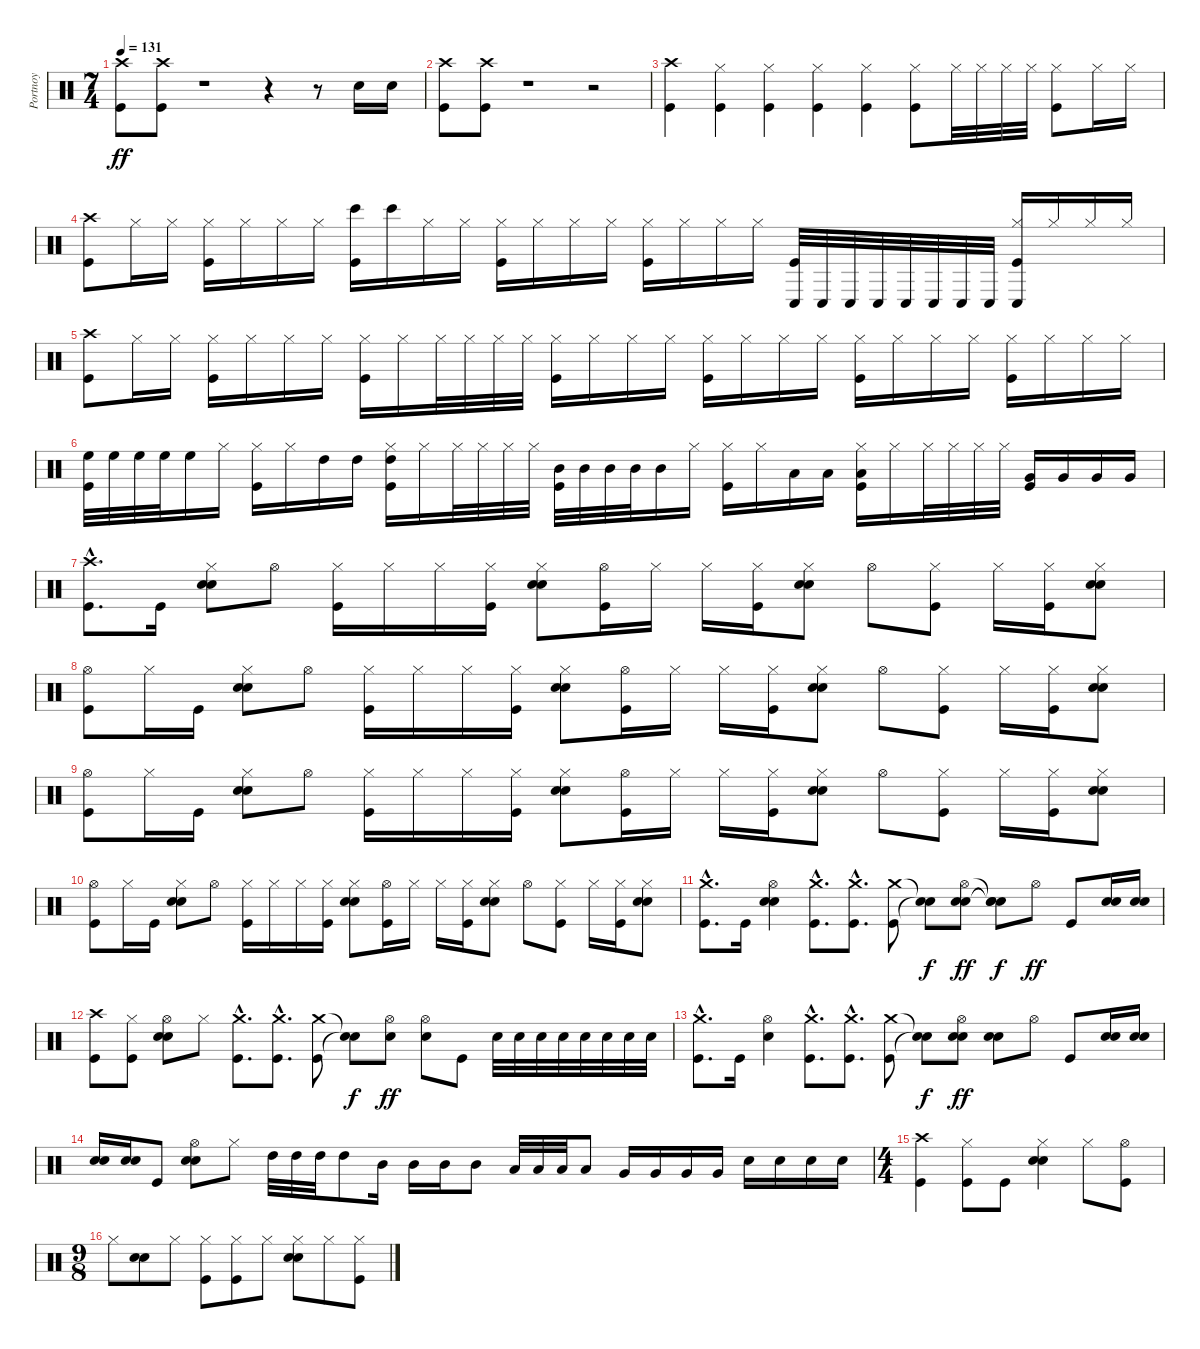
\track ("Portnoy" "Portnoy") {instrument percussion}
\staff {score}
\articulation defaults
\ts (7 4)
\tempo 131
\clef neutral
\ks c
("Crash high (hit)" "Kick (hit)").8{dy ff} ("Crash high (hit)" "Kick (hit)").8 r.1 r.4 r.8 "Snare (hit) 2".16 "Snare (hit) 2".16 |
("Crash high (hit)" "Kick (hit)").8 ("Crash high (hit)" "Kick (hit)").8 r.1 r.2 |
("Crash high (hit)" "Kick (hit)").4 ("Hi-Hat (closed)" "Kick (hit)").4 ("Hi-Hat (closed)" "Kick (hit)").4 ("Hi-Hat (closed)" "Kick (hit)").4 ("Hi-Hat (closed)" "Kick (hit)").4 ("Hi-Hat (closed)" "Kick (hit)").8 "Hi-Hat (closed)".32 "Hi-Hat (closed)".32 "Hi-Hat (closed)".32 "Hi-Hat (closed)".32 ("Hi-Hat (closed)" "Kick (hit)").8 "Hi-Hat (closed)".16 "Hi-Hat (closed)".16 |
("Crash high (hit)" "Kick (hit)").8 "Hi-Hat (closed)".16 "Hi-Hat (closed)".16 ("Hi-Hat (closed)" "Kick (hit)").16 "Hi-Hat (closed)".16 "Hi-Hat (closed)".16 "Hi-Hat (closed)".16 ("Bongo High (hit)" "Kick (hit)").16 "Bongo High (hit)".16 "Hi-Hat (closed)".16 "Hi-Hat (closed)".16 ("Hi-Hat (closed)" "Kick (hit)").16 "Hi-Hat (closed)".16 "Hi-Hat (closed)".16 "Hi-Hat (closed)".16 ("Hi-Hat (closed)" "Kick (hit)").16 "Hi-Hat (closed)".16 "Hi-Hat (closed)".16 "Hi-Hat (closed)".16 ("Conga low (hit)" "Kick (hit)").32 "Conga low (hit)".32 "Conga low (hit)".32 "Conga low (hit)".32 "Conga low (hit)".32 "Conga low (hit)".32 "Conga low (hit)".32 "Conga low (hit)".32 ("Hi-Hat (closed)" "Conga low (hit)" "Kick (hit)").16 "Hi-Hat (closed)".16 "Hi-Hat (closed)".16 "Hi-Hat (closed)".16 |
("Crash high (hit)" "Kick (hit)").8 "Hi-Hat (closed)".16 "Hi-Hat (closed)".16 ("Hi-Hat (closed)" "Kick (hit)").16 "Hi-Hat (closed)".16 "Hi-Hat (closed)".16 "Hi-Hat (closed)".16 ("Hi-Hat (closed)" "Kick (hit)").16 "Hi-Hat (closed)".16 "Hi-Hat (closed)".32 "Hi-Hat (closed)".32 "Hi-Hat (closed)".32 "Hi-Hat (closed)".32 ("Hi-Hat (closed)" "Kick (hit)").16 "Hi-Hat (closed)".16 "Hi-Hat (closed)".16 "Hi-Hat (closed)".16 ("Hi-Hat (closed)" "Kick (hit)").16 "Hi-Hat (closed)".16 "Hi-Hat (closed)".16 "Hi-Hat (closed)".16 ("Hi-Hat (closed)" "Kick (hit)").16 "Hi-Hat (closed)".16 "Hi-Hat (closed)".16 "Hi-Hat (closed)".16 ("Hi-Hat (closed)" "Kick (hit)").16 "Hi-Hat (closed)".16 "Hi-Hat (closed)".16 "Hi-Hat (closed)".16 |
("High Floor Tom (hit)" "Kick (hit)").32 "High Floor Tom (hit)".32 "High Floor Tom (hit)".32 "High Floor Tom (hit)".32 "High Floor Tom (hit)".16 "Hi-Hat (closed)".16 ("Hi-Hat (closed)" "Kick (hit)").16 "Hi-Hat (closed)".16 "High Tom (hit)".16 "High Tom (hit)".16 ("Hi-Hat (closed)" "High Tom (hit)" "Kick (hit)").16 "Hi-Hat (closed)".16 "Hi-Hat (closed)".32 "Hi-Hat (closed)".32 "Hi-Hat (closed)".32 "Hi-Hat (closed)".32 ("Mid Tom (hit)" "Kick (hit)").32 "Mid Tom (hit)".32 "Mid Tom (hit)".32 "Mid Tom (hit)".32 "Mid Tom (hit)".16 "Hi-Hat (closed)".16 ("Hi-Hat (closed)" "Kick (hit)").16 "Hi-Hat (closed)".16 "Low Tom (hit)".16 "Low Tom (hit)".16 ("Hi-Hat (closed)" "Low Tom (hit)" "Kick (hit)").16 "Hi-Hat (closed)".16 "Hi-Hat (closed)".32 "Hi-Hat (closed)".32 "Hi-Hat (closed)".32 "Hi-Hat (closed)".32 ("Very Low Tom (hit)" "Kick (hit)").16 "Very Low Tom (hit)".16 "Very Low Tom (hit)".16 "Very Low Tom (hit)".16 |
("Crash high (hit)"{hac} "Kick (hit)"{hac}).8{d} "Kick (hit)".16 ("Hi-Hat (closed)" "Snare (hit) 2" "Electric Snare (hit)").8 "Hi-Hat (open)".8 ("Hi-Hat (closed)" "Kick (hit)").16 "Hi-Hat (closed)".16 "Hi-Hat (closed)".16 ("Hi-Hat (closed)" "Kick (hit)").16 ("Hi-Hat (closed)" "Snare (hit) 2" "Electric Snare (hit)").8 ("Hi-Hat (open)" "Kick (hit)").16 "Hi-Hat (closed)".16 "Hi-Hat (closed)".16 ("Hi-Hat (closed)" "Kick (hit)").16 ("Hi-Hat (closed)" "Snare (hit) 2" "Electric Snare (hit)").8 "Hi-Hat (open)".8 ("Hi-Hat (closed)" "Kick (hit)").8 "Hi-Hat (closed)".16 ("Hi-Hat (closed)" "Kick (hit)").16 ("Hi-Hat (closed)" "Snare (hit) 2" "Electric Snare (hit)").8 |
("Hi-Hat (open)" "Kick (hit)").8 "Hi-Hat (closed)".16 "Kick (hit)".16 ("Hi-Hat (closed)" "Snare (hit) 2" "Electric Snare (hit)").8 "Hi-Hat (open)".8 ("Hi-Hat (closed)" "Kick (hit)").16 "Hi-Hat (closed)".16 "Hi-Hat (closed)".16 ("Hi-Hat (closed)" "Kick (hit)").16 ("Hi-Hat (closed)" "Snare (hit) 2" "Electric Snare (hit)").8 ("Hi-Hat (open)" "Kick (hit)").16 "Hi-Hat (closed)".16 "Hi-Hat (closed)".16 ("Hi-Hat (closed)" "Kick (hit)").16 ("Hi-Hat (closed)" "Snare (hit) 2" "Electric Snare (hit)").8 "Hi-Hat (open)".8 ("Hi-Hat (closed)" "Kick (hit)").8 "Hi-Hat (closed)".16 ("Hi-Hat (closed)" "Kick (hit)").16 ("Hi-Hat (closed)" "Snare (hit) 2" "Electric Snare (hit)").8 |
("Hi-Hat (open)" "Kick (hit)").8 "Hi-Hat (closed)".16 "Kick (hit)".16 ("Hi-Hat (closed)" "Snare (hit) 2" "Electric Snare (hit)").8 "Hi-Hat (open)".8 ("Hi-Hat (closed)" "Kick (hit)").16 "Hi-Hat (closed)".16 "Hi-Hat (closed)".16 ("Hi-Hat (closed)" "Kick (hit)").16 ("Hi-Hat (closed)" "Snare (hit) 2" "Electric Snare (hit)").8 ("Hi-Hat (open)" "Kick (hit)").16 "Hi-Hat (closed)".16 "Hi-Hat (closed)".16 ("Hi-Hat (closed)" "Kick (hit)").16 ("Hi-Hat (closed)" "Snare (hit) 2" "Electric Snare (hit)").8 "Hi-Hat (open)".8 ("Hi-Hat (closed)" "Kick (hit)").8 "Hi-Hat (closed)".16 ("Hi-Hat (closed)" "Kick (hit)").16 ("Hi-Hat (closed)" "Snare (hit) 2" "Electric Snare (hit)").8 |
("Hi-Hat (open)" "Kick (hit)").8 "Hi-Hat (closed)".16 "Kick (hit)".16 ("Hi-Hat (closed)" "Snare (hit) 2" "Electric Snare (hit)").8 "Hi-Hat (open)".8 ("Hi-Hat (closed)" "Kick (hit)").16 "Hi-Hat (closed)".16 "Hi-Hat (closed)".16 ("Hi-Hat (closed)" "Kick (hit)").16 ("Hi-Hat (closed)" "Snare (hit) 2" "Electric Snare (hit)").8 ("Hi-Hat (open)" "Kick (hit)").16 "Hi-Hat (closed)".16 "Hi-Hat (closed)".16 ("Hi-Hat (closed)" "Kick (hit)").16 ("Hi-Hat (closed)" "Snare (hit) 2" "Electric Snare (hit)").8 "Hi-Hat (open)".8 ("Hi-Hat (closed)" "Kick (hit)").8 "Hi-Hat (closed)".16 ("Hi-Hat (closed)" "Kick (hit)").16 ("Hi-Hat (closed)" "Snare (hit) 2" "Electric Snare (hit)").8 |
("Crash medium (hit)"{hac} "Kick (hit)"{hac}).8{d} "Kick (hit)".16 ("Hi-Hat (open)" "Snare (hit) 2" "Electric Snare (hit)").4 ("Crash medium (hit)"{hac} "Kick (hit)"{hac}).8{d} ("Crash medium (hit)"{hac} "Kick (hit)"{hac}).8{d} ("Crash medium (hit)" "Kick (hit)").8 ("Snare (hit)"{t} "Snare (hit)"{t}).8{dy f} ("Hi-Hat (open)" "Snare (hit) 2" "Electric Snare (hit)").8{dy ff} ("Snare (hit)"{t} "Snare (hit)"{t} "Snare (hit)"{t}).8{dy f} "Hi-Hat (open)".8{dy ff} "Kick (hit)".8 ("Snare (hit) 2" "Electric Snare (hit)").16 ("Snare (hit) 2" "Electric Snare (hit)").16 |
("Crash high (hit)" "Kick (hit)").8 ("Hi-Hat (closed)" "Kick (hit)").8 ("Hi-Hat (open)" "Snare (hit) 2" "Electric Snare (hit)").8 "Hi-Hat (closed)".8 ("Crash medium (hit)"{hac} "Kick (hit)"{hac}).8{d} ("Crash medium (hit)"{hac} "Kick (hit)"{hac}).8{d} ("Crash medium (hit)" "Kick (hit)").8 ("Snare (hit)"{t} "Snare (hit)"{t}).8{dy f} ("Hi-Hat (open)" "Snare (hit) 2").8{dy ff} ("Hi-Hat (open)" "Snare (hit) 2").8 "Kick (hit)".8 "Snare (hit) 2".32 "Snare (hit) 2".32 "Snare (hit) 2".32 "Snare (hit) 2".32 "Snare (hit) 2".32 "Snare (hit) 2".32 "Snare (hit) 2".32 "Snare (hit) 2".32 |
("Crash medium (hit)"{hac} "Kick (hit)"{hac}).8{d} "Kick (hit)".16 ("Hi-Hat (open)" "Snare (hit) 2").4 ("Crash medium (hit)"{hac} "Kick (hit)"{hac}).8{d} ("Crash medium (hit)"{hac} "Kick (hit)"{hac}).8{d} ("Crash medium (hit)" "Kick (hit)").8 ("Snare (hit)"{t} "Snare (hit)"{t}).8{dy f} ("Hi-Hat (open)" "Snare (hit) 2" "Electric Snare (hit)").8{dy ff} ("Snare (hit) 2" "Electric Snare (hit)").8 "Hi-Hat (open)".8 "Kick (hit)".8 ("Snare (hit) 2" "Electric Snare (hit)").16 ("Snare (hit) 2" "Electric Snare (hit)").16 |
("Snare (hit) 2" "Electric Snare (hit)").16 ("Snare (hit) 2" "Electric Snare (hit)").16 "Kick (hit)".8 ("Hi-Hat (open)" "Snare (hit) 2" "Electric Snare (hit)").8 "Hi-Hat (closed)".8 "High Tom (hit)".32 "High Tom (hit)".32 "High Tom (hit)".32 "High Tom (hit)".8 "Mid Tom (hit)".16 "Mid Tom (hit)".16 "Mid Tom (hit)".16 "Mid Tom (hit)".8 "Low Tom (hit)".32 "Low Tom (hit)".32 "Low Tom (hit)".32 "Low Tom (hit)".8 "Very Low Tom (hit)".16 "Very Low Tom (hit)".16 "Very Low Tom (hit)".16 "Very Low Tom (hit)".16 "Snare (hit) 2".16 "Snare (hit) 2".16 "Snare (hit) 2".16 "Snare (hit) 2".16 |
\ts (4 4)
("Crash high (hit)" "Kick (hit)").4 ("Hi-Hat (closed)" "Kick (hit)").8 "Kick (hit)".8 ("Hi-Hat (closed)" "Snare (hit) 2" "Electric Snare (hit)").4 "Hi-Hat (closed)".8 ("Hi-Hat (open)" "Kick (hit)").8 |
\ts (9 8)
"Hi-Hat (closed)".8 ("Snare (hit) 2" "Electric Snare (hit)").8 "Hi-Hat (closed)".8 ("Hi-Hat (closed)" "Kick (hit)").8 ("Hi-Hat (closed)" "Kick (hit)").8 "Hi-Hat (closed)".8 ("Hi-Hat (closed)" "Snare (hit) 2" "Electric Snare (hit)").8 "Hi-Hat (closed)".8 ("Hi-Hat (closed)" "Kick (hit)").8
